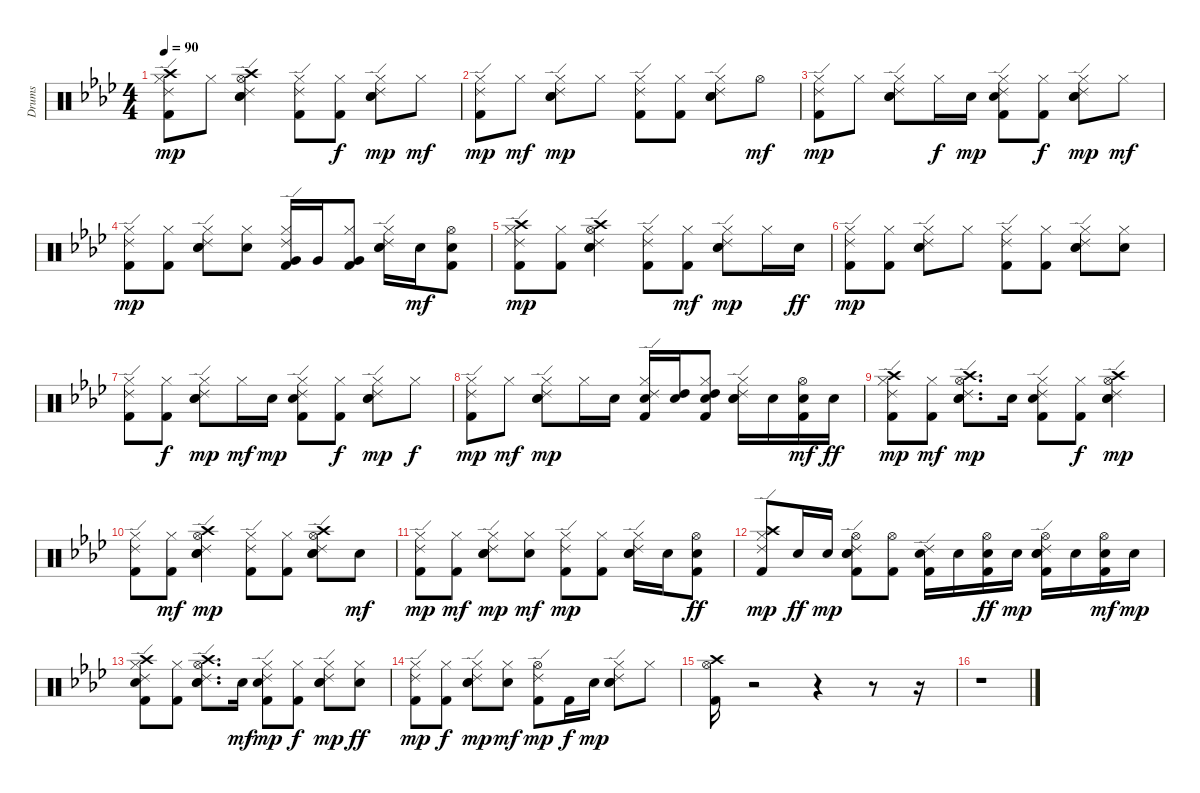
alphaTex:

\track ("Drums" "Drums") {instrument percussion}
\staff {score}
\articulation defaults
\ts (4 4)
\tempo 90
\clef neutral
\ks ab
("Kick (hit) 2" "Hi-Hat (closed)" "Crash high (hit)" "Ride (edge) 2").8{dy mp} "Hi-Hat (closed)".8 ("Snare (hit) 2" "Hand Clap (hit)" "Hi-Hat (open)" "Crash high (hit)" "Ride (edge) 2").4 ("Kick (hit) 2" "Hi-Hat (closed)" "Ride (edge) 2").8 ("Kick (hit) 2" "Hi-Hat (closed)").8{dy f} ("Snare (hit) 2" "Hand Clap (hit)" "Hi-Hat (closed)" "Ride (edge) 2").8{dy mp} "Hi-Hat (closed)".8{dy mf} |
("Kick (hit) 2" "Hi-Hat (closed)" "Ride (edge) 2").8{dy mp} "Hi-Hat (closed)".8{dy mf} ("Snare (hit) 2" "Hand Clap (hit)" "Hi-Hat (closed)" "Ride (edge) 2").8{dy mp} "Hi-Hat (closed)".8 ("Kick (hit) 2" "Hi-Hat (closed)" "Ride (edge) 2").8 ("Kick (hit) 2" "Hi-Hat (closed)").8 ("Snare (hit) 2" "Hand Clap (hit)" "Hi-Hat (closed)" "Ride (edge) 2").8 "Hi-Hat (open)".8{dy mf} |
("Kick (hit) 2" "Hi-Hat (closed)" "Ride (edge) 2").8{dy mp} "Hi-Hat (closed)".8 ("Snare (hit) 2" "Hand Clap (hit)" "Hi-Hat (closed)" "Ride (edge) 2").8 "Hi-Hat (closed)".16{dy f} "Snare (hit) 2".16{dy mp} ("Kick (hit) 2" "Snare (hit) 2" "Hi-Hat (closed)" "Ride (edge) 2").8 ("Kick (hit) 2" "Hi-Hat (closed)").8{dy f} ("Snare (hit) 2" "Hand Clap (hit)" "Hi-Hat (closed)" "Ride (edge) 2").8{dy mp} "Hi-Hat (closed)".8{dy mf} |
("Kick (hit) 2" "Hi-Hat (closed)" "Ride (edge) 2").8{dy mp} ("Kick (hit) 2" "Hi-Hat (closed)").8 ("Snare (hit) 2" "Hand Clap (hit)" "Hi-Hat (closed)" "Ride (edge) 2").8 ("Snare (hit) 2" "Hi-Hat (closed)").8 ("Kick (hit) 2" "Hi-Hat (closed)" "Very Low Tom (hit)" "Ride (edge) 2").16 "Very Low Tom (hit)".16 ("Kick (hit) 2" "Hi-Hat (closed)" "Very Low Tom (hit)").8 ("Snare (hit) 2" "Hand Clap (hit)" "Hi-Hat (closed)" "Ride (edge) 2").16 "Snare (hit) 2".16{dy mf} ("Kick (hit) 2" "Snare (hit) 2" "Hi-Hat (open)").8 |
("Kick (hit) 2" "Hi-Hat (closed)" "Crash high (hit)" "Ride (edge) 2").8{dy mp} ("Kick (hit) 2" "Hi-Hat (closed)").8 ("Snare (hit) 2" "Hand Clap (hit)" "Hi-Hat (open)" "Crash high (hit)" "Ride (edge) 2").4 ("Kick (hit) 2" "Hi-Hat (closed)" "Ride (edge) 2").8 ("Kick (hit) 2" "Hi-Hat (closed)").8{dy mf} ("Snare (hit) 2" "Hand Clap (hit)" "Hi-Hat (closed)" "Ride (edge) 2").8{dy mp} "Hi-Hat (closed)".16 "Snare (hit) 2".16{dy ff} |
("Kick (hit) 2" "Hi-Hat (closed)" "Ride (edge) 2").8{dy mp} ("Kick (hit) 2" "Hi-Hat (closed)").8 ("Snare (hit) 2" "Hand Clap (hit)" "Hi-Hat (closed)" "Ride (edge) 2").8 "Hi-Hat (closed)".8 ("Kick (hit) 2" "Hi-Hat (closed)" "Ride (edge) 2").8 ("Kick (hit) 2" "Hi-Hat (closed)").8 ("Snare (hit) 2" "Hand Clap (hit)" "Hi-Hat (closed)" "Ride (edge) 2").8 ("Snare (hit) 2" "Hi-Hat (closed)").8 |
("Kick (hit) 2" "Hi-Hat (closed)" "Ride (edge) 2").8 ("Kick (hit) 2" "Hi-Hat (closed)").8{dy f} ("Snare (hit) 2" "Hand Clap (hit)" "Hi-Hat (closed)" "Ride (edge) 2").8{dy mp} "Hi-Hat (closed)".16{dy mf} "Snare (hit) 2".16{dy mp} ("Kick (hit) 2" "Snare (hit) 2" "Hi-Hat (closed)" "Ride (edge) 2").8 ("Kick (hit) 2" "Hi-Hat (closed)").8{dy f} ("Snare (hit) 2" "Hand Clap (hit)" "Hi-Hat (closed)" "Ride (edge) 2").8{dy mp} "Hi-Hat (closed)".8{dy f} |
("Kick (hit) 2" "Hi-Hat (closed)" "Ride (edge) 2").8{dy mp} "Hi-Hat (closed)".8{dy mf} ("Snare (hit) 2" "Hand Clap (hit)" "Hi-Hat (closed)" "Ride (edge) 2").8{dy mp} "Hi-Hat (closed)".16 "Snare (hit) 2".16 ("Kick (hit) 2" "Snare (hit) 2" "Hi-Hat (closed)" "Ride (edge) 2").16 ("Snare (hit) 2" "High Tom (hit)").16 ("Kick (hit) 2" "Snare (hit) 2" "Hi-Hat (closed)" "High Tom (hit)").8 ("Snare (hit) 2" "Hand Clap (hit)" "Hi-Hat (closed)" "Ride (edge) 2").16 "Snare (hit) 2".16 ("Kick (hit) 2" "Snare (hit) 2" "Hi-Hat (open)").16{dy mf} "Snare (hit) 2".16{dy ff} |
("Kick (hit) 2" "Hi-Hat (closed)" "Crash high (hit)" "Ride (edge) 2").8{dy mp} ("Kick (hit) 2" "Hi-Hat (closed)").8{dy mf} ("Snare (hit) 2" "Hand Clap (hit)" "Hi-Hat (open)" "Crash high (hit)" "Ride (edge) 2").8{d dy mp} "Snare (hit) 2".16 ("Kick (hit) 2" "Snare (hit) 2" "Hi-Hat (closed)" "Ride (edge) 2").8 ("Kick (hit) 2" "Hi-Hat (closed)").8{dy f} ("Snare (hit) 2" "Hand Clap (hit)" "Hi-Hat (open)" "Crash high (hit)" "Ride (edge) 2").4{dy mp} |
("Kick (hit) 2" "Hi-Hat (closed)" "Ride (edge) 2").8 ("Kick (hit) 2" "Hi-Hat (closed)").8{dy mf} ("Snare (hit) 2" "Hand Clap (hit)" "Hi-Hat (open)" "Crash high (hit)" "Ride (edge) 2").4{dy mp} ("Kick (hit) 2" "Hi-Hat (closed)" "Ride (edge) 2").8 ("Kick (hit) 2" "Hi-Hat (closed)").8 ("Snare (hit) 2" "Hand Clap (hit)" "Hi-Hat (open)" "Crash high (hit)" "Ride (edge) 2").8 "Snare (hit) 2".8{dy mf} |
("Kick (hit) 2" "Hi-Hat (closed)" "Ride (edge) 2").8{dy mp} ("Kick (hit) 2" "Hi-Hat (closed)").8{dy mf} ("Snare (hit) 2" "Hand Clap (hit)" "Hi-Hat (closed)" "Ride (edge) 2").8{dy mp} ("Snare (hit) 2" "Hi-Hat (closed)").8{dy mf} ("Kick (hit) 2" "Hi-Hat (closed)" "Ride (edge) 2").8{dy mp} ("Kick (hit) 2" "Hi-Hat (closed)").8 ("Snare (hit) 2" "Hand Clap (hit)" "Hi-Hat (closed)" "Ride (edge) 2").16 "Snare (hit) 2".16 ("Kick (hit) 2" "Snare (hit) 2" "Hi-Hat (open)").8{dy ff} |
("Kick (hit) 2" "Hi-Hat (closed)" "Crash high (hit)" "Ride (edge) 2").8{dy mp} "Snare (hit) 2".16{dy ff} "Snare (hit) 2".16{dy mp} ("Kick (hit) 2" "Snare (hit) 2" "Hand Clap (hit)" "Hi-Hat (open)" "Ride (edge) 2").8 ("Kick (hit) 2" "Hi-Hat (open)").8 ("Kick (hit) 2" "Snare (hit) 2" "Ride (edge) 2").16 "Snare (hit) 2".16 ("Kick (hit) 2" "Snare (hit) 2" "Hi-Hat (open)").16{dy ff} "Snare (hit) 2".16{dy mp} ("Kick (hit) 2" "Snare (hit) 2" "Hand Clap (hit)" "Hi-Hat (open)" "Ride (edge) 2").16 "Snare (hit) 2".16 ("Kick (hit) 2" "Snare (hit) 2" "Hi-Hat (open)").16{dy mf} "Snare (hit) 2".16{dy mp} |
("Kick (hit) 2" "Snare (hit) 2" "Hi-Hat (closed)" "Crash high (hit)" "Ride (edge) 2").8 ("Kick (hit) 2" "Hi-Hat (closed)").8 ("Snare (hit) 2" "Hand Clap (hit)" "Hi-Hat (open)" "Crash high (hit)" "Ride (edge) 2").8{d} "Snare (hit) 2".16{dy mf} ("Kick (hit) 2" "Snare (hit) 2" "Hi-Hat (closed)" "Ride (edge) 2").8{dy mp} ("Kick (hit) 2" "Hi-Hat (closed)").8{dy f} ("Snare (hit) 2" "Hand Clap (hit)" "Hi-Hat (closed)" "Ride (edge) 2").8{dy mp} ("Snare (hit) 2" "Hi-Hat (closed)").8{dy ff} |
("Kick (hit) 2" "Hi-Hat (closed)" "Ride (edge) 2").8{dy mp} ("Kick (hit) 2" "Hi-Hat (closed)").8{dy f} ("Snare (hit) 2" "Hand Clap (hit)" "Hi-Hat (closed)" "Ride (edge) 2").8{dy mp} ("Snare (hit) 2" "Hi-Hat (closed)").8{dy mf} ("Kick (hit) 2" "Hi-Hat (open)" "Ride (edge) 2").8{dy mp} "Kick (hit) 2".16{dy f} "Snare (hit) 2".16{dy mp} ("Snare (hit) 2" "Hand Clap (hit)" "Hi-Hat (closed)" "Ride (edge) 2").8 "Hi-Hat (closed)".8 |
("Kick (hit) 2" "Hi-Hat (open)" "Crash high (hit)").16 r.2 r.4 r.8 r.16 |
r.1
